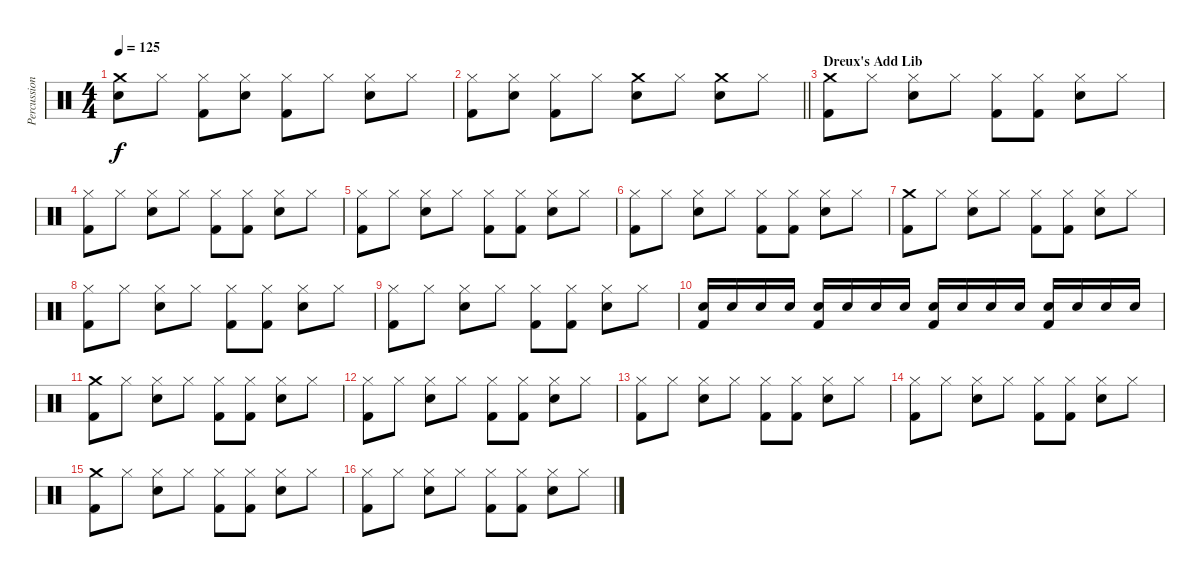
\track ("Percussion" "Percussion") {instrument percussion}
\staff {score}
\articulation defaults
\ts (4 4)
\tempo 125
\clef neutral
\ks c
("Crash medium (hit)" "Snare (hit) 2").8{dy f} "Hi-Hat (closed)".8 ("Hi-Hat (closed)" "Kick (hit) 2").8 ("Hi-Hat (closed)" "Snare (hit) 2").8 ("Hi-Hat (closed)" "Kick (hit) 2").8 "Hi-Hat (closed)".8 ("Hi-Hat (closed)" "Snare (hit) 2").8 "Hi-Hat (closed)".8 |
\barLineRight lightlight
("Hi-Hat (closed)" "Kick (hit) 2").8 ("Hi-Hat (closed)" "Snare (hit) 2").8 ("Hi-Hat (closed)" "Kick (hit) 2").8 "Hi-Hat (closed)".8 ("Crash medium (hit)" "Snare (hit) 2").8 "Hi-Hat (closed)".8 ("Crash medium (hit)" "Snare (hit) 2").8 "Hi-Hat (closed)".8 |
\section ("" "Dreux's Add Lib")
("Crash medium (hit)" "Kick (hit) 2").8 "Hi-Hat (closed)".8 ("Hi-Hat (closed)" "Snare (hit) 2").8 "Hi-Hat (closed)".8 ("Hi-Hat (closed)" "Kick (hit) 2").8 ("Hi-Hat (closed)" "Kick (hit) 2").8 ("Hi-Hat (closed)" "Snare (hit) 2").8 "Hi-Hat (closed)".8 |
("Hi-Hat (closed)" "Kick (hit) 2").8 "Hi-Hat (closed)".8 ("Hi-Hat (closed)" "Snare (hit) 2").8 "Hi-Hat (closed)".8 ("Hi-Hat (closed)" "Kick (hit) 2").8 ("Hi-Hat (closed)" "Kick (hit) 2").8 ("Hi-Hat (closed)" "Snare (hit) 2").8 "Hi-Hat (closed)".8 |
("Hi-Hat (closed)" "Kick (hit) 2").8 "Hi-Hat (closed)".8 ("Hi-Hat (closed)" "Snare (hit) 2").8 "Hi-Hat (closed)".8 ("Hi-Hat (closed)" "Kick (hit) 2").8 ("Hi-Hat (closed)" "Kick (hit) 2").8 ("Hi-Hat (closed)" "Snare (hit) 2").8 "Hi-Hat (closed)".8 |
("Hi-Hat (closed)" "Kick (hit) 2").8 "Hi-Hat (closed)".8 ("Hi-Hat (closed)" "Snare (hit) 2").8 "Hi-Hat (closed)".8 ("Hi-Hat (closed)" "Kick (hit) 2").8 ("Hi-Hat (closed)" "Kick (hit) 2").8 ("Hi-Hat (closed)" "Snare (hit) 2").8 "Hi-Hat (closed)".8 |
("Crash medium (hit)" "Kick (hit) 2").8 "Hi-Hat (closed)".8 ("Hi-Hat (closed)" "Snare (hit) 2").8 "Hi-Hat (closed)".8 ("Hi-Hat (closed)" "Kick (hit) 2").8 ("Hi-Hat (closed)" "Kick (hit) 2").8 ("Hi-Hat (closed)" "Snare (hit) 2").8 "Hi-Hat (closed)".8 |
("Hi-Hat (closed)" "Kick (hit) 2").8 "Hi-Hat (closed)".8 ("Hi-Hat (closed)" "Snare (hit) 2").8 "Hi-Hat (closed)".8 ("Hi-Hat (closed)" "Kick (hit) 2").8 ("Hi-Hat (closed)" "Kick (hit) 2").8 ("Hi-Hat (closed)" "Snare (hit) 2").8 "Hi-Hat (closed)".8 |
("Hi-Hat (closed)" "Kick (hit) 2").8 "Hi-Hat (closed)".8 ("Hi-Hat (closed)" "Snare (hit) 2").8 "Hi-Hat (closed)".8 ("Hi-Hat (closed)" "Kick (hit) 2").8 ("Hi-Hat (closed)" "Kick (hit) 2").8 ("Hi-Hat (closed)" "Snare (hit) 2").8 "Hi-Hat (closed)".8 |
("Snare (hit) 2" "Kick (hit) 2").16 "Snare (hit) 2".16 "Snare (hit) 2".16 "Snare (hit) 2".16 ("Snare (hit) 2" "Kick (hit) 2").16 "Snare (hit) 2".16 "Snare (hit) 2".16 "Snare (hit) 2".16 ("Snare (hit) 2" "Kick (hit) 2").16 "Snare (hit) 2".16 "Snare (hit) 2".16 "Snare (hit) 2".16 ("Snare (hit) 2" "Kick (hit) 2").16 "Snare (hit) 2".16 "Snare (hit) 2".16 "Snare (hit) 2".16 |
("Crash medium (hit)" "Kick (hit) 2").8 "Hi-Hat (closed)".8 ("Hi-Hat (closed)" "Snare (hit) 2").8 "Hi-Hat (closed)".8 ("Hi-Hat (closed)" "Kick (hit) 2").8 ("Hi-Hat (closed)" "Kick (hit) 2").8 ("Hi-Hat (closed)" "Snare (hit) 2").8 "Hi-Hat (closed)".8 |
("Hi-Hat (closed)" "Kick (hit) 2").8 "Hi-Hat (closed)".8 ("Hi-Hat (closed)" "Snare (hit) 2").8 "Hi-Hat (closed)".8 ("Hi-Hat (closed)" "Kick (hit) 2").8 ("Hi-Hat (closed)" "Kick (hit) 2").8 ("Hi-Hat (closed)" "Snare (hit) 2").8 "Hi-Hat (closed)".8 |
("Hi-Hat (closed)" "Kick (hit) 2").8 "Hi-Hat (closed)".8 ("Hi-Hat (closed)" "Snare (hit) 2").8 "Hi-Hat (closed)".8 ("Hi-Hat (closed)" "Kick (hit) 2").8 ("Hi-Hat (closed)" "Kick (hit) 2").8 ("Hi-Hat (closed)" "Snare (hit) 2").8 "Hi-Hat (closed)".8 |
("Hi-Hat (closed)" "Kick (hit) 2").8 "Hi-Hat (closed)".8 ("Hi-Hat (closed)" "Snare (hit) 2").8 "Hi-Hat (closed)".8 ("Hi-Hat (closed)" "Kick (hit) 2").8 ("Hi-Hat (closed)" "Kick (hit) 2").8 ("Hi-Hat (closed)" "Snare (hit) 2").8 "Hi-Hat (closed)".8 |
("Crash medium (hit)" "Kick (hit) 2").8 "Hi-Hat (closed)".8 ("Hi-Hat (closed)" "Snare (hit) 2").8 "Hi-Hat (closed)".8 ("Hi-Hat (closed)" "Kick (hit) 2").8 ("Hi-Hat (closed)" "Kick (hit) 2").8 ("Hi-Hat (closed)" "Snare (hit) 2").8 "Hi-Hat (closed)".8 |
("Hi-Hat (closed)" "Kick (hit) 2").8 "Hi-Hat (closed)".8 ("Hi-Hat (closed)" "Snare (hit) 2").8 "Hi-Hat (closed)".8 ("Hi-Hat (closed)" "Kick (hit) 2").8 ("Hi-Hat (closed)" "Kick (hit) 2").8 ("Hi-Hat (closed)" "Snare (hit) 2").8 "Hi-Hat (closed)".8
